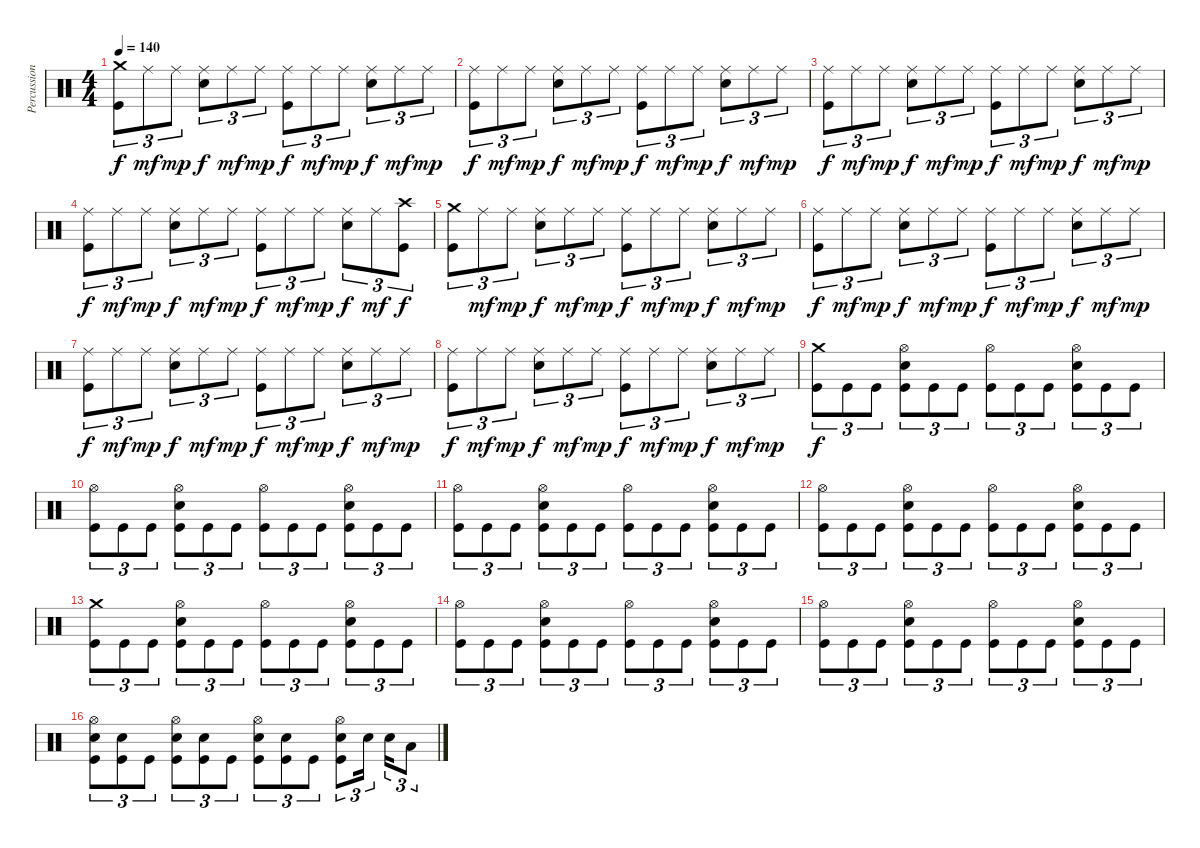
\track ("Percussions" "Percussion") {instrument percussion}
\staff {score}
\articulation defaults
\ts (4 4)
\tempo 140
\clef neutral
\ks c
("Crash medium (hit)" "Kick (hit)").8{tu (3 2) dy f} "Ride (middle)".8{tu (3 2) dy mf} "Ride (middle)".8{tu (3 2) dy mp} ("Ride (middle)" "Electric Snare (hit)").8{tu (3 2) dy f} "Ride (middle)".8{tu (3 2) dy mf} "Ride (middle)".8{tu (3 2) dy mp} ("Ride (middle)" "Kick (hit)").8{tu (3 2) dy f} "Ride (middle)".8{tu (3 2) dy mf} "Ride (middle)".8{tu (3 2) dy mp} ("Ride (middle)" "Electric Snare (hit)").8{tu (3 2) dy f} "Ride (middle)".8{tu (3 2) dy mf} "Ride (middle)".8{tu (3 2) dy mp} |
("Ride (middle)" "Kick (hit)").8{tu (3 2) dy f} "Ride (middle)".8{tu (3 2) dy mf} "Ride (middle)".8{tu (3 2) dy mp} ("Ride (middle)" "Electric Snare (hit)").8{tu (3 2) dy f} "Ride (middle)".8{tu (3 2) dy mf} "Ride (middle)".8{tu (3 2) dy mp} ("Ride (middle)" "Kick (hit)").8{tu (3 2) dy f} "Ride (middle)".8{tu (3 2) dy mf} "Ride (middle)".8{tu (3 2) dy mp} ("Ride (middle)" "Electric Snare (hit)").8{tu (3 2) dy f} "Ride (middle)".8{tu (3 2) dy mf} "Ride (middle)".8{tu (3 2) dy mp} |
("Ride (middle)" "Kick (hit)").8{tu (3 2) dy f} "Ride (middle)".8{tu (3 2) dy mf} "Ride (middle)".8{tu (3 2) dy mp} ("Ride (middle)" "Electric Snare (hit)").8{tu (3 2) dy f} "Ride (middle)".8{tu (3 2) dy mf} "Ride (middle)".8{tu (3 2) dy mp} ("Ride (middle)" "Kick (hit)").8{tu (3 2) dy f} "Ride (middle)".8{tu (3 2) dy mf} "Ride (middle)".8{tu (3 2) dy mp} ("Ride (middle)" "Electric Snare (hit)").8{tu (3 2) dy f} "Ride (middle)".8{tu (3 2) dy mf} "Ride (middle)".8{tu (3 2) dy mp} |
("Ride (middle)" "Kick (hit)").8{tu (3 2) dy f} "Ride (middle)".8{tu (3 2) dy mf} "Ride (middle)".8{tu (3 2) dy mp} ("Ride (middle)" "Electric Snare (hit)").8{tu (3 2) dy f} "Ride (middle)".8{tu (3 2) dy mf} "Ride (middle)".8{tu (3 2) dy mp} ("Ride (middle)" "Kick (hit)").8{tu (3 2) dy f} "Ride (middle)".8{tu (3 2) dy mf} "Ride (middle)".8{tu (3 2) dy mp} ("Ride (middle)" "Electric Snare (hit)").8{tu (3 2) dy f} "Ride (middle)".8{tu (3 2) dy mf} ("Crash high (hit)" "Kick (hit)").8{tu (3 2) dy f} |
("Crash medium (hit)" "Kick (hit)").8{tu (3 2)} "Ride (middle)".8{tu (3 2) dy mf} "Ride (middle)".8{tu (3 2) dy mp} ("Ride (middle)" "Electric Snare (hit)").8{tu (3 2) dy f} "Ride (middle)".8{tu (3 2) dy mf} "Ride (middle)".8{tu (3 2) dy mp} ("Ride (middle)" "Kick (hit)").8{tu (3 2) dy f} "Ride (middle)".8{tu (3 2) dy mf} "Ride (middle)".8{tu (3 2) dy mp} ("Ride (middle)" "Electric Snare (hit)").8{tu (3 2) dy f} "Ride (middle)".8{tu (3 2) dy mf} "Ride (middle)".8{tu (3 2) dy mp} |
("Ride (middle)" "Kick (hit)").8{tu (3 2) dy f} "Ride (middle)".8{tu (3 2) dy mf} "Ride (middle)".8{tu (3 2) dy mp} ("Ride (middle)" "Electric Snare (hit)").8{tu (3 2) dy f} "Ride (middle)".8{tu (3 2) dy mf} "Ride (middle)".8{tu (3 2) dy mp} ("Ride (middle)" "Kick (hit)").8{tu (3 2) dy f} "Ride (middle)".8{tu (3 2) dy mf} "Ride (middle)".8{tu (3 2) dy mp} ("Ride (middle)" "Electric Snare (hit)").8{tu (3 2) dy f} "Ride (middle)".8{tu (3 2) dy mf} "Ride (middle)".8{tu (3 2) dy mp} |
("Ride (middle)" "Kick (hit)").8{tu (3 2) dy f} "Ride (middle)".8{tu (3 2) dy mf} "Ride (middle)".8{tu (3 2) dy mp} ("Ride (middle)" "Electric Snare (hit)").8{tu (3 2) dy f} "Ride (middle)".8{tu (3 2) dy mf} "Ride (middle)".8{tu (3 2) dy mp} ("Ride (middle)" "Kick (hit)").8{tu (3 2) dy f} "Ride (middle)".8{tu (3 2) dy mf} "Ride (middle)".8{tu (3 2) dy mp} ("Ride (middle)" "Electric Snare (hit)").8{tu (3 2) dy f} "Ride (middle)".8{tu (3 2) dy mf} "Ride (middle)".8{tu (3 2) dy mp} |
("Ride (middle)" "Kick (hit)").8{tu (3 2) dy f} "Ride (middle)".8{tu (3 2) dy mf} "Ride (middle)".8{tu (3 2) dy mp} ("Ride (middle)" "Electric Snare (hit)").8{tu (3 2) dy f} "Ride (middle)".8{tu (3 2) dy mf} "Ride (middle)".8{tu (3 2) dy mp} ("Ride (middle)" "Kick (hit)").8{tu (3 2) dy f} "Ride (middle)".8{tu (3 2) dy mf} "Ride (middle)".8{tu (3 2) dy mp} ("Ride (middle)" "Electric Snare (hit)").8{tu (3 2) dy f} "Ride (middle)".8{tu (3 2) dy mf} "Ride (middle)".8{tu (3 2) dy mp} |
("Crash medium (hit)" "Kick (hit)").8{tu (3 2) dy f} "Kick (hit)".8{tu (3 2)} "Kick (hit)".8{tu (3 2)} ("Hi-Hat (open)" "Electric Snare (hit)" "Kick (hit)").8{tu (3 2)} "Kick (hit)".8{tu (3 2)} "Kick (hit)".8{tu (3 2)} ("Hi-Hat (open)" "Kick (hit)").8{tu (3 2)} "Kick (hit)".8{tu (3 2)} "Kick (hit)".8{tu (3 2)} ("Hi-Hat (open)" "Electric Snare (hit)" "Kick (hit)").8{tu (3 2)} "Kick (hit)".8{tu (3 2)} "Kick (hit)".8{tu (3 2)} |
("Hi-Hat (open)" "Kick (hit)").8{tu (3 2)} "Kick (hit)".8{tu (3 2)} "Kick (hit)".8{tu (3 2)} ("Hi-Hat (open)" "Electric Snare (hit)" "Kick (hit)").8{tu (3 2)} "Kick (hit)".8{tu (3 2)} "Kick (hit)".8{tu (3 2)} ("Hi-Hat (open)" "Kick (hit)").8{tu (3 2)} "Kick (hit)".8{tu (3 2)} "Kick (hit)".8{tu (3 2)} ("Hi-Hat (open)" "Electric Snare (hit)" "Kick (hit)").8{tu (3 2)} "Kick (hit)".8{tu (3 2)} "Kick (hit)".8{tu (3 2)} |
("Hi-Hat (open)" "Kick (hit)").8{tu (3 2)} "Kick (hit)".8{tu (3 2)} "Kick (hit)".8{tu (3 2)} ("Hi-Hat (open)" "Electric Snare (hit)" "Kick (hit)").8{tu (3 2)} "Kick (hit)".8{tu (3 2)} "Kick (hit)".8{tu (3 2)} ("Hi-Hat (open)" "Kick (hit)").8{tu (3 2)} "Kick (hit)".8{tu (3 2)} "Kick (hit)".8{tu (3 2)} ("Hi-Hat (open)" "Electric Snare (hit)" "Kick (hit)").8{tu (3 2)} "Kick (hit)".8{tu (3 2)} "Kick (hit)".8{tu (3 2)} |
("Hi-Hat (open)" "Kick (hit)").8{tu (3 2)} "Kick (hit)".8{tu (3 2)} "Kick (hit)".8{tu (3 2)} ("Hi-Hat (open)" "Electric Snare (hit)" "Kick (hit)").8{tu (3 2)} "Kick (hit)".8{tu (3 2)} "Kick (hit)".8{tu (3 2)} ("Hi-Hat (open)" "Kick (hit)").8{tu (3 2)} "Kick (hit)".8{tu (3 2)} "Kick (hit)".8{tu (3 2)} ("Hi-Hat (open)" "Electric Snare (hit)" "Kick (hit)").8{tu (3 2)} "Kick (hit)".8{tu (3 2)} "Kick (hit)".8{tu (3 2)} |
("Crash medium (hit)" "Kick (hit)").8{tu (3 2)} "Kick (hit)".8{tu (3 2)} "Kick (hit)".8{tu (3 2)} ("Hi-Hat (open)" "Electric Snare (hit)" "Kick (hit)").8{tu (3 2)} "Kick (hit)".8{tu (3 2)} "Kick (hit)".8{tu (3 2)} ("Hi-Hat (open)" "Kick (hit)").8{tu (3 2)} "Kick (hit)".8{tu (3 2)} "Kick (hit)".8{tu (3 2)} ("Hi-Hat (open)" "Electric Snare (hit)" "Kick (hit)").8{tu (3 2)} "Kick (hit)".8{tu (3 2)} "Kick (hit)".8{tu (3 2)} |
("Hi-Hat (open)" "Kick (hit)").8{tu (3 2)} "Kick (hit)".8{tu (3 2)} "Kick (hit)".8{tu (3 2)} ("Hi-Hat (open)" "Electric Snare (hit)" "Kick (hit)").8{tu (3 2)} "Kick (hit)".8{tu (3 2)} "Kick (hit)".8{tu (3 2)} ("Hi-Hat (open)" "Kick (hit)").8{tu (3 2)} "Kick (hit)".8{tu (3 2)} "Kick (hit)".8{tu (3 2)} ("Hi-Hat (open)" "Electric Snare (hit)" "Kick (hit)").8{tu (3 2)} "Kick (hit)".8{tu (3 2)} "Kick (hit)".8{tu (3 2)} |
("Hi-Hat (open)" "Kick (hit)").8{tu (3 2)} "Kick (hit)".8{tu (3 2)} "Kick (hit)".8{tu (3 2)} ("Hi-Hat (open)" "Electric Snare (hit)" "Kick (hit)").8{tu (3 2)} "Kick (hit)".8{tu (3 2)} "Kick (hit)".8{tu (3 2)} ("Hi-Hat (open)" "Kick (hit)").8{tu (3 2)} "Kick (hit)".8{tu (3 2)} "Kick (hit)".8{tu (3 2)} ("Hi-Hat (open)" "Electric Snare (hit)" "Kick (hit)").8{tu (3 2)} "Kick (hit)".8{tu (3 2)} "Kick (hit)".8{tu (3 2)} |
("Hi-Hat (open)" "Electric Snare (hit)" "Kick (hit)").8{tu (3 2)} ("Electric Snare (hit)" "Kick (hit)").8{tu (3 2)} "Kick (hit)".8{tu (3 2)} ("Hi-Hat (open)" "Electric Snare (hit)" "Kick (hit)").8{tu (3 2)} ("Electric Snare (hit)" "Kick (hit)").8{tu (3 2)} "Kick (hit)".8{tu (3 2)} ("Hi-Hat (open)" "Electric Snare (hit)" "Kick (hit)").8{tu (3 2)} ("Electric Snare (hit)" "Kick (hit)").8{tu (3 2)} "Kick (hit)".8{tu (3 2)} ("Hi-Hat (open)" "Electric Snare (hit)" "Kick (hit)").8{tu (3 2)} "Electric Snare (hit)".16{tu (3 2) beam splitsecondary} "Electric Snare (hit)".16{tu (3 2)} "Low Tom (hit)".8{tu (3 2)}
